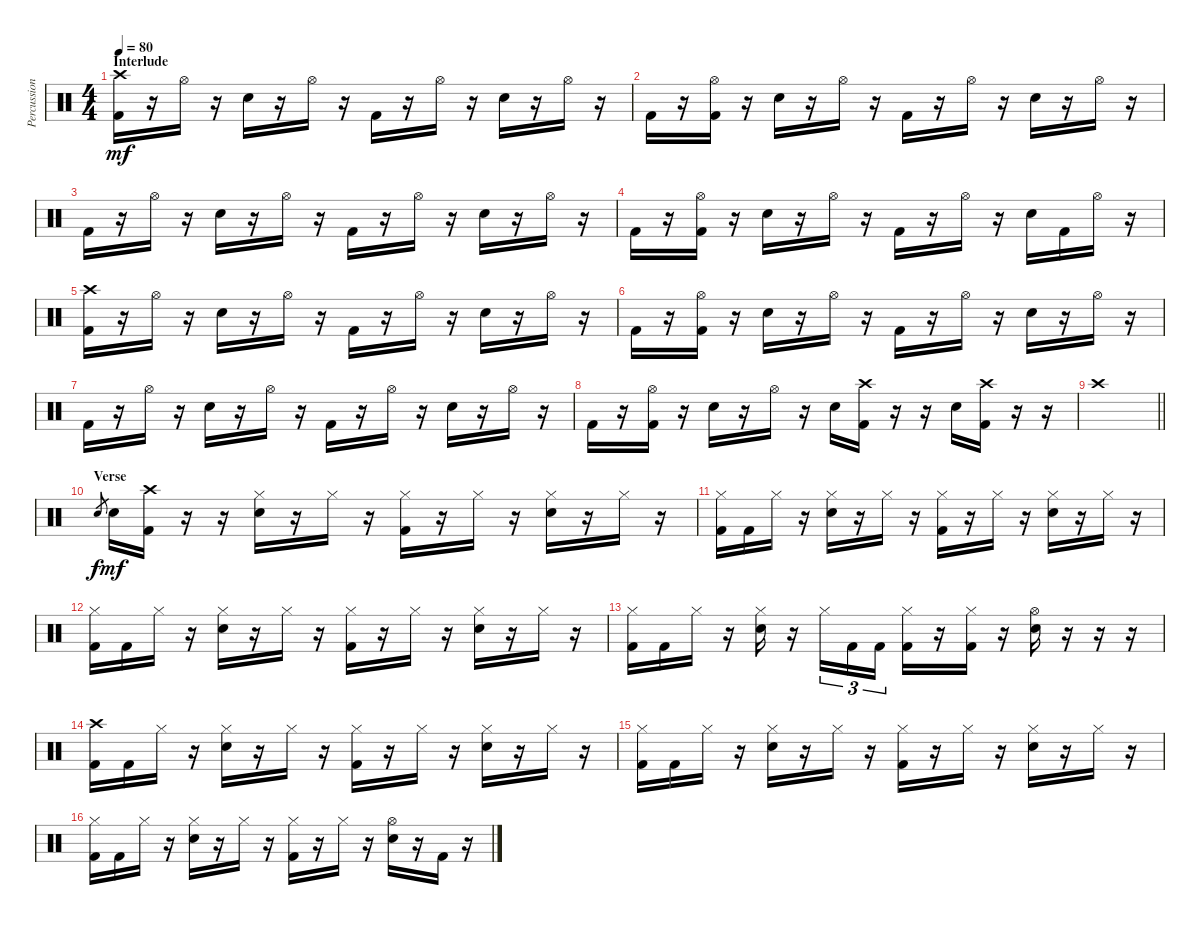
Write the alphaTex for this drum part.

\track ("Percussion" "Percussion") {instrument percussion}
\staff {score}
\articulation defaults
\ts (4 4)
\section ("" "Interlude")
\tempo 80
\clef neutral
\ks c
("Crash high (hit)" "Kick (hit) 2").16{dy mf} r.16 "Hi-Hat (open)".16 r.16 "Snare (hit) 2".16 r.16 "Hi-Hat (open)".16 r.16 "Kick (hit) 2".16 r.16 "Hi-Hat (open)".16 r.16 "Snare (hit) 2".16 r.16 "Hi-Hat (open)".16 r.16 |
"Kick (hit) 2".16 r.16 ("Hi-Hat (open)" "Kick (hit) 2").16 r.16 "Snare (hit) 2".16 r.16 "Hi-Hat (open)".16 r.16 "Kick (hit) 2".16 r.16 "Hi-Hat (open)".16 r.16 "Snare (hit) 2".16 r.16 "Hi-Hat (open)".16 r.16 |
"Kick (hit) 2".16 r.16 "Hi-Hat (open)".16 r.16 "Snare (hit) 2".16 r.16 "Hi-Hat (open)".16 r.16 "Kick (hit) 2".16 r.16 "Hi-Hat (open)".16 r.16 "Snare (hit) 2".16 r.16 "Hi-Hat (open)".16 r.16 |
"Kick (hit) 2".16 r.16 ("Hi-Hat (open)" "Kick (hit) 2").16 r.16 "Snare (hit) 2".16 r.16 "Hi-Hat (open)".16 r.16 "Kick (hit) 2".16 r.16 "Hi-Hat (open)".16 r.16 "Snare (hit) 2".16 "Kick (hit) 2".16 "Hi-Hat (open)".16 r.16 |
("Crash high (hit)" "Kick (hit) 2").16 r.16 "Hi-Hat (open)".16 r.16 "Snare (hit) 2".16 r.16 "Hi-Hat (open)".16 r.16 "Kick (hit) 2".16 r.16 "Hi-Hat (open)".16 r.16 "Snare (hit) 2".16 r.16 "Hi-Hat (open)".16 r.16 |
"Kick (hit) 2".16 r.16 ("Hi-Hat (open)" "Kick (hit) 2").16 r.16 "Snare (hit) 2".16 r.16 "Hi-Hat (open)".16 r.16 "Kick (hit) 2".16 r.16 "Hi-Hat (open)".16 r.16 "Snare (hit) 2".16 r.16 "Hi-Hat (open)".16 r.16 |
"Kick (hit) 2".16 r.16 "Hi-Hat (open)".16 r.16 "Snare (hit) 2".16 r.16 "Hi-Hat (open)".16 r.16 "Kick (hit) 2".16 r.16 "Hi-Hat (open)".16 r.16 "Snare (hit) 2".16 r.16 "Hi-Hat (open)".16 r.16 |
"Kick (hit) 2".16 r.16 ("Hi-Hat (open)" "Kick (hit) 2").16 r.16 "Snare (hit) 2".16 r.16 "Hi-Hat (open)".16 r.16 "Snare (hit) 2".16 ("Crash high (hit)" "Kick (hit) 2").16 r.16 r.16 "Snare (hit) 2".16 ("Crash high (hit)" "Kick (hit) 2").16 r.16 r.16 |
\barLineRight lightlight "Crash high (hit)".1
|
\section ("" "Verse")
"Snare (hit) 2".8{gr dy f} "Snare (hit) 2".16{dy mf} ("Crash high (hit)" "Kick (hit) 2").16 r.16 r.16 ("Hi-Hat (closed)" "Snare (hit) 2").16 r.16 "Hi-Hat (closed)".16 r.16 ("Hi-Hat (closed)" "Kick (hit) 2").16 r.16 "Hi-Hat (closed)".16 r.16 ("Hi-Hat (closed)" "Snare (hit) 2").16 r.16 "Hi-Hat (closed)".16 r.16 |
("Hi-Hat (closed)" "Kick (hit) 2").16 "Kick (hit) 2".16 "Hi-Hat (closed)".16 r.16 ("Hi-Hat (closed)" "Snare (hit) 2").16 r.16 "Hi-Hat (closed)".16 r.16 ("Hi-Hat (closed)" "Kick (hit) 2").16 r.16 "Hi-Hat (closed)".16 r.16 ("Hi-Hat (closed)" "Snare (hit) 2").16 r.16 "Hi-Hat (closed)".16 r.16 |
("Hi-Hat (closed)" "Kick (hit) 2").16 "Kick (hit) 2".16 "Hi-Hat (closed)".16 r.16 ("Hi-Hat (closed)" "Snare (hit) 2").16 r.16 "Hi-Hat (closed)".16 r.16 ("Hi-Hat (closed)" "Kick (hit) 2").16 r.16 "Hi-Hat (closed)".16 r.16 ("Hi-Hat (closed)" "Snare (hit) 2").16 r.16 "Hi-Hat (closed)".16 r.16 |
("Hi-Hat (closed)" "Kick (hit) 2").16 "Kick (hit) 2".16 "Hi-Hat (closed)".16 r.16 ("Hi-Hat (closed)" "Snare (hit) 2").16 r.16 "Hi-Hat (closed)".16{tu (3 2)} "Kick (hit) 2".16{tu (3 2)} "Kick (hit) 2".16{tu (3 2)} ("Hi-Hat (closed)" "Kick (hit) 2").16 r.16 ("Hi-Hat (closed)" "Kick (hit) 2").16 r.16 ("Hi-Hat (open)" "Snare (hit) 2").16 r.16 r.16 r.16 |
("Crash high (hit)" "Kick (hit) 2").16 "Kick (hit) 2".16 "Hi-Hat (closed)".16 r.16 ("Hi-Hat (closed)" "Snare (hit) 2").16 r.16 "Hi-Hat (closed)".16 r.16 ("Hi-Hat (closed)" "Kick (hit) 2").16 r.16 "Hi-Hat (closed)".16 r.16 ("Hi-Hat (closed)" "Snare (hit) 2").16 r.16 "Hi-Hat (closed)".16 r.16 |
("Hi-Hat (closed)" "Kick (hit) 2").16 "Kick (hit) 2".16 "Hi-Hat (closed)".16 r.16 ("Hi-Hat (closed)" "Snare (hit) 2").16 r.16 "Hi-Hat (closed)".16 r.16 ("Hi-Hat (closed)" "Kick (hit) 2").16 r.16 "Hi-Hat (closed)".16 r.16 ("Hi-Hat (closed)" "Snare (hit) 2").16 r.16 "Hi-Hat (closed)".16 r.16 |
("Hi-Hat (closed)" "Kick (hit) 2").16 "Kick (hit) 2".16 "Hi-Hat (closed)".16 r.16 ("Hi-Hat (closed)" "Snare (hit) 2").16 r.16 "Hi-Hat (closed)".16 r.16 ("Hi-Hat (closed)" "Kick (hit) 2").16 r.16 "Hi-Hat (closed)".16 r.16 ("Hi-Hat (open)" "Snare (hit) 2").16 r.16 "Kick (hit) 2".16 r.16
